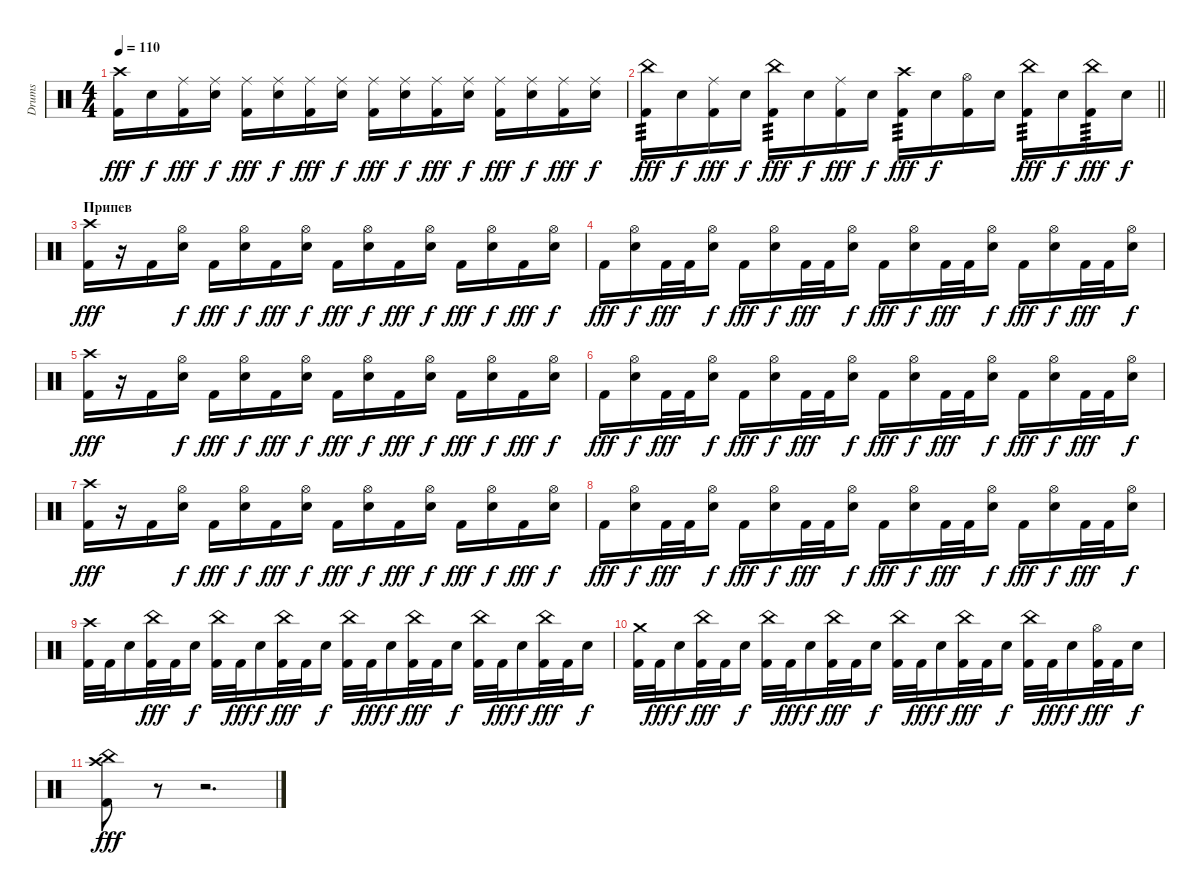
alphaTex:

\track ("Drums" "Drums") {instrument percussion}
\staff {score}
\articulation defaults
\ts (4 4)
\tempo 110
\clef neutral
\ks c
("Crash high (hit)" "Kick (hit) 2").16{dy fff} "Snare (hit) 2".16{dy f} ("Ride (middle)" "Kick (hit) 2").16{dy fff} ("Ride (middle)" "Snare (hit) 2").16{dy f} ("Ride (middle)" "Kick (hit) 2").16{dy fff} ("Ride (middle)" "Snare (hit) 2").16{dy f} ("Ride (middle)" "Kick (hit) 2").16{dy fff} ("Ride (middle)" "Snare (hit) 2").16{dy f} ("Ride (middle)" "Kick (hit) 2").16{dy fff} ("Ride (middle)" "Snare (hit) 2").16{dy f} ("Ride (middle)" "Kick (hit) 2").16{dy fff} ("Ride (middle)" "Snare (hit) 2").16{dy f} ("Ride (middle)" "Kick (hit) 2").16{dy fff} ("Ride (middle)" "Snare (hit) 2").16{dy f} ("Ride (middle)" "Kick (hit) 2").16{dy fff} ("Ride (middle)" "Snare (hit) 2").16{dy f} |
\barLineRight lightlight
("China (hit)" "Kick (hit) 2").16{tp 3 dy fff} "Snare (hit) 2".16{dy f} ("Ride (middle)" "Kick (hit) 2").16{dy fff} "Snare (hit) 2".16{dy f} ("China (hit)" "Kick (hit) 2").16{tp 3 dy fff} "Snare (hit) 2".16{dy f} ("Ride (middle)" "Kick (hit) 2").16{dy fff} "Snare (hit) 2".16{dy f} ("Crash high (hit)" "Kick (hit) 2").16{tp 3 dy fff} "Snare (hit) 2".16{dy f} ("Hi-Hat (open)" "Kick (hit) 2").16 "Snare (hit) 2".16 ("China (hit)" "Kick (hit) 2").16{tp 3 dy fff} "Snare (hit) 2".16{dy f} ("China (hit)" "Kick (hit) 2").16{tp 3 dy fff} "Snare (hit) 2".16{dy f} |
\section ("" "Припев")
("Crash high (hit)" "Kick (hit) 2").16{dy fff} r.16 "Kick (hit) 2".16 ("Hi-Hat (open)" "Snare (hit) 2").16{dy f} "Kick (hit) 2".16{dy fff} ("Hi-Hat (open)" "Snare (hit) 2").16{dy f} "Kick (hit) 2".16{dy fff} ("Hi-Hat (open)" "Snare (hit) 2").16{dy f} "Kick (hit) 2".16{dy fff} ("Hi-Hat (open)" "Snare (hit) 2").16{dy f} "Kick (hit) 2".16{dy fff} ("Hi-Hat (open)" "Snare (hit) 2").16{dy f} "Kick (hit) 2".16{dy fff} ("Hi-Hat (open)" "Snare (hit) 2").16{dy f} "Kick (hit) 2".16{dy fff} ("Hi-Hat (open)" "Snare (hit) 2").16{dy f} |
"Kick (hit) 2".16{dy fff} ("Hi-Hat (open)" "Snare (hit) 2").16{dy f} "Kick (hit) 2".32{dy fff} "Kick (hit) 2".32 ("Hi-Hat (open)" "Snare (hit) 2").16{dy f} "Kick (hit) 2".16{dy fff} ("Hi-Hat (open)" "Snare (hit) 2").16{dy f} "Kick (hit) 2".32{dy fff} "Kick (hit) 2".32 ("Hi-Hat (open)" "Snare (hit) 2").16{dy f} "Kick (hit) 2".16{dy fff} ("Hi-Hat (open)" "Snare (hit) 2").16{dy f} "Kick (hit) 2".32{dy fff} "Kick (hit) 2".32 ("Hi-Hat (open)" "Snare (hit) 2").16{dy f} "Kick (hit) 2".16{dy fff} ("Hi-Hat (open)" "Snare (hit) 2").16{dy f} "Kick (hit) 2".32{dy fff} "Kick (hit) 2".32 ("Hi-Hat (open)" "Snare (hit) 2").16{dy f} |
("Crash high (hit)" "Kick (hit) 2").16{dy fff} r.16 "Kick (hit) 2".16 ("Hi-Hat (open)" "Snare (hit) 2").16{dy f} "Kick (hit) 2".16{dy fff} ("Hi-Hat (open)" "Snare (hit) 2").16{dy f} "Kick (hit) 2".16{dy fff} ("Hi-Hat (open)" "Snare (hit) 2").16{dy f} "Kick (hit) 2".16{dy fff} ("Hi-Hat (open)" "Snare (hit) 2").16{dy f} "Kick (hit) 2".16{dy fff} ("Hi-Hat (open)" "Snare (hit) 2").16{dy f} "Kick (hit) 2".16{dy fff} ("Hi-Hat (open)" "Snare (hit) 2").16{dy f} "Kick (hit) 2".16{dy fff} ("Hi-Hat (open)" "Snare (hit) 2").16{dy f} |
"Kick (hit) 2".16{dy fff} ("Hi-Hat (open)" "Snare (hit) 2").16{dy f} "Kick (hit) 2".32{dy fff} "Kick (hit) 2".32 ("Hi-Hat (open)" "Snare (hit) 2").16{dy f} "Kick (hit) 2".16{dy fff} ("Hi-Hat (open)" "Snare (hit) 2").16{dy f} "Kick (hit) 2".32{dy fff} "Kick (hit) 2".32 ("Hi-Hat (open)" "Snare (hit) 2").16{dy f} "Kick (hit) 2".16{dy fff} ("Hi-Hat (open)" "Snare (hit) 2").16{dy f} "Kick (hit) 2".32{dy fff} "Kick (hit) 2".32 ("Hi-Hat (open)" "Snare (hit) 2").16{dy f} "Kick (hit) 2".16{dy fff} ("Hi-Hat (open)" "Snare (hit) 2").16{dy f} "Kick (hit) 2".32{dy fff} "Kick (hit) 2".32 ("Hi-Hat (open)" "Snare (hit) 2").16{dy f} |
("Crash high (hit)" "Kick (hit) 2").16{dy fff} r.16 "Kick (hit) 2".16 ("Hi-Hat (open)" "Snare (hit) 2").16{dy f} "Kick (hit) 2".16{dy fff} ("Hi-Hat (open)" "Snare (hit) 2").16{dy f} "Kick (hit) 2".16{dy fff} ("Hi-Hat (open)" "Snare (hit) 2").16{dy f} "Kick (hit) 2".16{dy fff} ("Hi-Hat (open)" "Snare (hit) 2").16{dy f} "Kick (hit) 2".16{dy fff} ("Hi-Hat (open)" "Snare (hit) 2").16{dy f} "Kick (hit) 2".16{dy fff} ("Hi-Hat (open)" "Snare (hit) 2").16{dy f} "Kick (hit) 2".16{dy fff} ("Hi-Hat (open)" "Snare (hit) 2").16{dy f} |
"Kick (hit) 2".16{dy fff} ("Hi-Hat (open)" "Snare (hit) 2").16{dy f} "Kick (hit) 2".32{dy fff} "Kick (hit) 2".32 ("Hi-Hat (open)" "Snare (hit) 2").16{dy f} "Kick (hit) 2".16{dy fff} ("Hi-Hat (open)" "Snare (hit) 2").16{dy f} "Kick (hit) 2".32{dy fff} "Kick (hit) 2".32 ("Hi-Hat (open)" "Snare (hit) 2").16{dy f} "Kick (hit) 2".16{dy fff} ("Hi-Hat (open)" "Snare (hit) 2").16{dy f} "Kick (hit) 2".32{dy fff} "Kick (hit) 2".32 ("Hi-Hat (open)" "Snare (hit) 2").16{dy f} "Kick (hit) 2".16{dy fff} ("Hi-Hat (open)" "Snare (hit) 2").16{dy f} "Kick (hit) 2".32{dy fff} "Kick (hit) 2".32 ("Hi-Hat (open)" "Snare (hit) 2").16{dy f} |
("Crash high (hit)" "Kick (hit) 2").32 "Kick (hit) 2".32 "Snare (hit) 2".16 ("China (hit)" "Kick (hit) 2").32{dy fff} "Kick (hit) 2".32 "Snare (hit) 2".16{dy f} ("China (hit)" "Kick (hit) 2").32 "Kick (hit) 2".32{dy fff} "Snare (hit) 2".16{dy f} ("China (hit)" "Kick (hit) 2").32{dy fff} "Kick (hit) 2".32 "Snare (hit) 2".16{dy f} ("China (hit)" "Kick (hit) 2").32 "Kick (hit) 2".32{dy fff} "Snare (hit) 2".16{dy f} ("China (hit)" "Kick (hit) 2").32{dy fff} "Kick (hit) 2".32 "Snare (hit) 2".16{dy f} ("China (hit)" "Kick (hit) 2").32 "Kick (hit) 2".32{dy fff} "Snare (hit) 2".16{dy f} ("China (hit)" "Kick (hit) 2").32{dy fff} "Kick (hit) 2".32 "Snare (hit) 2".16{dy f} |
("Crash medium (hit)" "Kick (hit) 2").32 "Kick (hit) 2".32{dy fff} "Snare (hit) 2".16{dy f} ("China (hit)" "Kick (hit) 2").32{dy fff} "Kick (hit) 2".32 "Snare (hit) 2".16{dy f} ("China (hit)" "Kick (hit) 2").32 "Kick (hit) 2".32{dy fff} "Snare (hit) 2".16{dy f} ("China (hit)" "Kick (hit) 2").32{dy fff} "Kick (hit) 2".32 "Snare (hit) 2".16{dy f} ("China (hit)" "Kick (hit) 2").32 "Kick (hit) 2".32{dy fff} "Snare (hit) 2".16{dy f} ("China (hit)" "Kick (hit) 2").32{dy fff} "Kick (hit) 2".32 "Snare (hit) 2".16{dy f} ("China (hit)" "Kick (hit) 2").32 "Kick (hit) 2".32{dy fff} "Snare (hit) 2".16{dy f} ("Hi-Hat (open)" "Kick (hit) 2").32{dy fff} "Kick (hit) 2".32 "Snare (hit) 2".16{dy f} |
("Crash high (hit)" "China (hit)" "Kick (hit) 2").8{dy fff} r.8 r.2{d}
